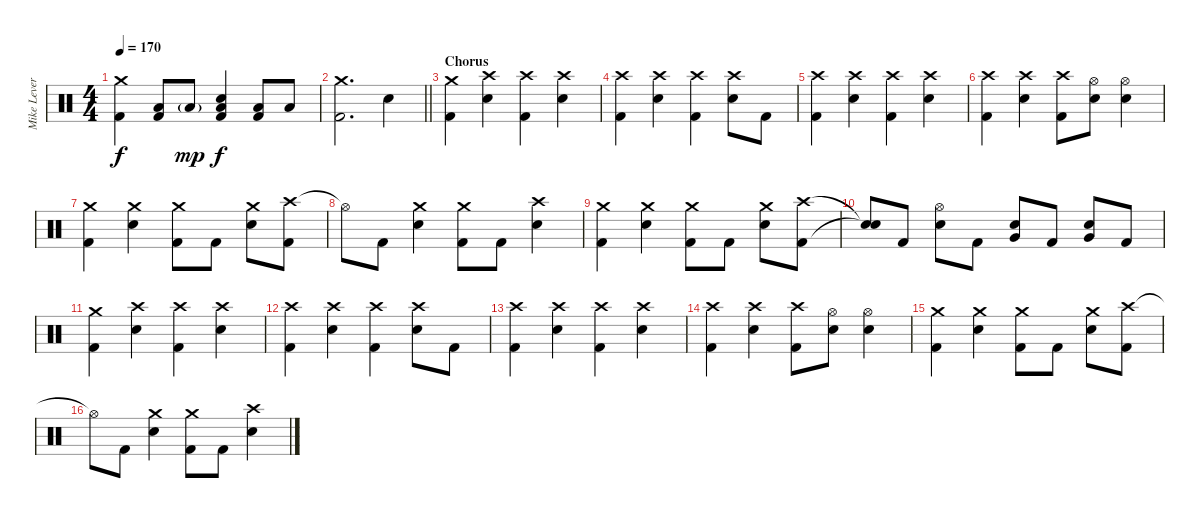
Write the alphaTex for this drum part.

\track ("Mike Leverence - Drums" "Mike Lever") {instrument percussion}
\staff {score}
\articulation defaults
\ts (4 4)
\tempo 170
\clef neutral
\ks c
("Crash medium (hit)" "Kick (hit) 2").4{dy f} ("Low Floor Tom (hit)" "Kick (hit) 2").8 "Low Floor Tom (hit)"{g}.8{dy mp} ("Electric Snare (hit)" "Low Floor Tom (hit)" "Kick (hit) 2").4{dy f} ("Low Tom (hit)" "Kick (hit) 2").8 "Low Tom (hit)".8 |
\barLineRight lightlight
("Crash medium (hit)" "Kick (hit) 2").2{d} "Electric Snare (hit)".4 |
\section ("" "Chorus")
("Crash medium (hit)" "Kick (hit) 2").4 ("Crash high (hit)" "Electric Snare (hit)").4 ("Crash high (hit)" "Kick (hit) 2").4 ("Crash high (hit)" "Electric Snare (hit)").4 |
("Crash high (hit)" "Kick (hit) 2").4 ("Crash high (hit)" "Electric Snare (hit)").4 ("Crash high (hit)" "Kick (hit) 2").4 ("Crash high (hit)" "Electric Snare (hit)").8 "Kick (hit) 2".8 |
("Crash high (hit)" "Kick (hit) 2").4 ("Crash high (hit)" "Electric Snare (hit)").4 ("Crash high (hit)" "Kick (hit) 2").4 ("Crash high (hit)" "Electric Snare (hit)").4 |
("Crash high (hit)" "Kick (hit) 2").4 ("Crash high (hit)" "Electric Snare (hit)").4 ("Crash high (hit)" "Kick (hit) 2").8 ("Hi-Hat (open)" "Electric Snare (hit)").8 ("Hi-Hat (open)" "Electric Snare (hit)").4 |
("Crash medium (hit)" "Kick (hit) 2").4 ("Crash medium (hit)" "Electric Snare (hit)").4 ("Crash medium (hit)" "Kick (hit) 2").8 "Kick (hit) 2".8 ("Crash medium (hit)" "Electric Snare (hit)").8 ("Crash high (hit)" "Kick (hit) 2").8 |
"Hi-Hat (open)"{t}.8 "Kick (hit) 2".8 ("Crash medium (hit)" "Electric Snare (hit)").4 ("Crash medium (hit)" "Kick (hit) 2").8 "Kick (hit) 2".8 ("Crash high (hit)" "Electric Snare (hit)").4 |
("Crash medium (hit)" "Kick (hit) 2").4 ("Crash medium (hit)" "Electric Snare (hit)").4 ("Crash medium (hit)" "Kick (hit) 2").8 "Kick (hit) 2".8 ("Crash medium (hit)" "Electric Snare (hit)").8 ("Crash high (hit)" "Kick (hit) 2").8 |
("Snare (hit)"{t} "Snare (hit)"{t}).8 "Kick (hit) 2".8 ("Hi-Hat (open)" "Electric Snare (hit)").8 "Kick (hit) 2".8 ("Very Low Tom (hit)" "Electric Snare (hit)").8 "Kick (hit) 2".8 ("Very Low Tom (hit)" "Electric Snare (hit)").8 "Kick (hit) 2".8 |
("Crash medium (hit)" "Kick (hit) 2").4 ("Crash high (hit)" "Electric Snare (hit)").4 ("Crash high (hit)" "Kick (hit) 2").4 ("Crash high (hit)" "Electric Snare (hit)").4 |
("Crash high (hit)" "Kick (hit) 2").4 ("Crash high (hit)" "Electric Snare (hit)").4 ("Crash high (hit)" "Kick (hit) 2").4 ("Crash high (hit)" "Electric Snare (hit)").8 "Kick (hit) 2".8 |
("Crash high (hit)" "Kick (hit) 2").4 ("Crash high (hit)" "Electric Snare (hit)").4 ("Crash high (hit)" "Kick (hit) 2").4 ("Crash high (hit)" "Electric Snare (hit)").4 |
("Crash high (hit)" "Kick (hit) 2").4 ("Crash high (hit)" "Electric Snare (hit)").4 ("Crash high (hit)" "Kick (hit) 2").8 ("Hi-Hat (open)" "Electric Snare (hit)").8 ("Hi-Hat (open)" "Electric Snare (hit)").4 |
("Crash medium (hit)" "Kick (hit) 2").4 ("Crash medium (hit)" "Electric Snare (hit)").4 ("Crash medium (hit)" "Kick (hit) 2").8 "Kick (hit) 2".8 ("Crash medium (hit)" "Electric Snare (hit)").8 ("Crash high (hit)" "Kick (hit) 2").8 |
"Hi-Hat (open)"{t}.8 "Kick (hit) 2".8 ("Crash medium (hit)" "Electric Snare (hit)").4 ("Crash medium (hit)" "Kick (hit) 2").8 "Kick (hit) 2".8 ("Crash high (hit)" "Electric Snare (hit)").4
